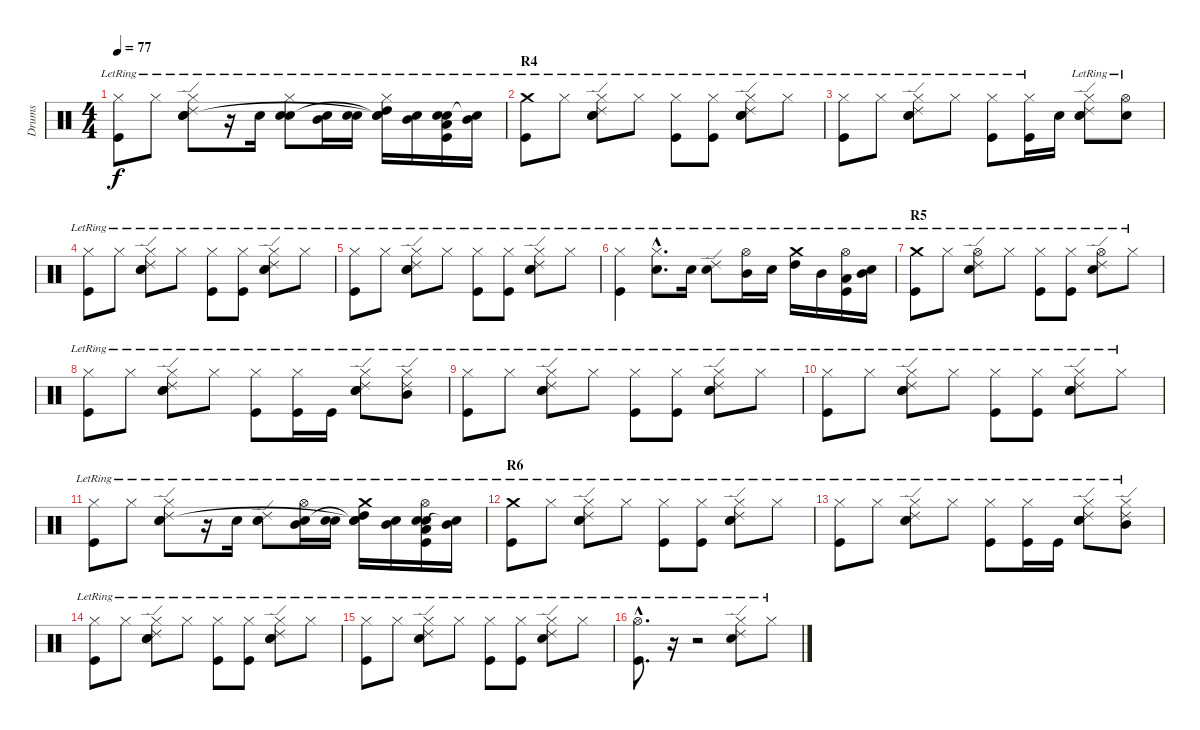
\track ("Drums" "Drums") {instrument percussion}
\staff {score}
\articulation defaults
\ts (4 4)
\tempo 77
\clef neutral
\ks c
("Hi-Hat (closed)"{lr} "Kick (hit)"{lr}).8{dy f} "Hi-Hat (closed)"{lr}.8 ("Hi-Hat (closed)"{lr} "Snare (hit) 2"{lr} "Ride (edge) 2"{lr} "Electric Snare (hit)"{lr}).8 r.16 "Snare (hit) 2"{lr}.16 ("Hi-Hat (closed)"{lr} "Snare (hit) 2"{lr} "Electric Snare (hit)"{lr}).8 ("Mid Tom (hit)"{lr} "Snare (hit) 2"{lr}).16 ("Snare (hit) 2"{lr} "Electric Snare (hit)"{lr}).16 ("Hi-Hat (closed)"{lr} "High Tom (hit)"{lr} "Snare (hit)"{t} "Snare (hit)"{t}).16 ("Mid Tom (hit)"{lr} "Snare (hit) 2"{lr}).16 ("Low Tom (hit)"{lr} "Snare (hit) 2"{lr} "Electric Snare (hit)"{lr} "Kick (hit)"{lr}).16 ("Mid Tom (hit)"{lr} "Snare (hit)"{t}).16 |
\section ("" "R4")
("Crash medium (hit)"{lr} "Kick (hit)"{lr}).8 "Hi-Hat (closed)"{lr}.8 ("Hi-Hat (closed)"{lr} "Snare (hit) 2"{lr} "Ride (edge) 2"{lr} "Electric Snare (hit)"{lr}).8 "Hi-Hat (closed)"{lr}.8 ("Hi-Hat (closed)"{lr} "Kick (hit)"{lr}).8 ("Hi-Hat (closed)"{lr} "Kick (hit)").8 ("Hi-Hat (closed)"{lr} "Snare (hit) 2"{lr} "Ride (edge) 2"{lr} "Electric Snare (hit)"{lr}).8 "Hi-Hat (closed)"{lr}.8 |
("Hi-Hat (closed)"{lr} "Kick (hit)"{lr}).8 "Hi-Hat (closed)"{lr}.8 ("Hi-Hat (closed)"{lr} "Snare (hit) 2"{lr} "Ride (edge) 2"{lr} "Electric Snare (hit)"{lr}).8 "Hi-Hat (closed)"{lr}.8 ("Hi-Hat (closed)"{lr} "Kick (hit)"{lr}).8 ("Hi-Hat (closed)"{lr} "Kick (hit)").16 "Snare (hit) 2".16 ("Hi-Hat (closed)"{lr} "Snare (hit) 2"{lr} "Ride (edge) 2"{lr} "Electric Snare (hit)"{lr}).8 ("Hi-Hat (open)"{lr} "Electric Snare (hit)").8 |
("Hi-Hat (closed)"{lr} "Kick (hit)"{lr}).8 "Hi-Hat (closed)"{lr}.8 ("Hi-Hat (closed)"{lr} "Snare (hit) 2"{lr} "Ride (edge) 2"{lr} "Electric Snare (hit)"{lr}).8 "Hi-Hat (closed)"{lr}.8 ("Hi-Hat (closed)"{lr} "Kick (hit)"{lr}).8 ("Hi-Hat (closed)"{lr} "Kick (hit)").8 ("Hi-Hat (closed)"{lr} "Snare (hit) 2"{lr} "Ride (edge) 2"{lr} "Electric Snare (hit)"{lr}).8 "Hi-Hat (closed)"{lr}.8 |
("Hi-Hat (closed)"{lr} "Kick (hit)"{lr}).8 "Hi-Hat (closed)"{lr}.8 ("Hi-Hat (closed)"{lr} "Snare (hit) 2"{lr} "Ride (edge) 2"{lr} "Electric Snare (hit)"{lr}).8 "Hi-Hat (closed)"{lr}.8 ("Hi-Hat (closed)"{lr} "Kick (hit)"{lr}).8 ("Hi-Hat (closed)"{lr} "Kick (hit)").8 ("Hi-Hat (closed)"{lr} "Snare (hit) 2"{lr} "Ride (edge) 2"{lr} "Electric Snare (hit)"{lr}).8 "Hi-Hat (closed)"{lr}.8 |
("Hi-Hat (closed)"{lr} "Kick (hit)"{lr}).4 ("Hi-Hat (closed)"{hac lr} "Snare (hit) 2"{hac lr}).8{d} "Snare (hit) 2"{lr}.16 ("Ride (edge) 2"{lr} "Snare (hit) 2"{lr}).8 ("Hi-Hat (open)"{lr} "Mid Tom (hit)"{lr}).16 "Snare (hit) 2"{lr}.16 ("Crash medium (hit)"{lr} "High Tom (hit)"{lr}).16 "Mid Tom (hit)"{lr}.16 ("Hi-Hat (open)"{lr} "Low Tom (hit)"{lr} "Kick (hit)"{lr}).16 ("Snare (hit) 2"{lr} "Mid Tom (hit)"{lr}).16 |
\section ("" "R5")
("Crash medium (hit)"{lr} "Kick (hit)"{lr}).8 "Hi-Hat (closed)"{lr}.8 ("Hi-Hat (open)"{lr} "Snare (hit) 2"{lr} "Ride (edge) 2"{lr}).8 "Hi-Hat (closed)"{lr}.8 ("Hi-Hat (closed)"{lr} "Kick (hit)"{lr}).8 ("Hi-Hat (closed)"{lr} "Kick (hit)").8 ("Hi-Hat (open)"{lr} "Snare (hit) 2"{lr} "Ride (edge) 2"{lr}).8 "Hi-Hat (closed)"{lr}.8 |
("Hi-Hat (closed)"{lr} "Kick (hit)"{lr}).8 "Hi-Hat (closed)"{lr}.8 ("Hi-Hat (closed)"{lr} "Snare (hit) 2"{lr} "Ride (edge) 2"{lr} "Electric Snare (hit)"{lr}).8 "Hi-Hat (closed)"{lr}.8 ("Hi-Hat (closed)"{lr} "Kick (hit)").8 ("Hi-Hat (closed)"{lr} "Kick (hit)").16 "Kick (hit)"{lr}.16 ("Hi-Hat (closed)"{lr} "Snare (hit) 2"{lr} "Ride (edge) 2"{lr} "Electric Snare (hit)"{lr}).8 ("Hi-Hat (closed)"{lr} "Mid Tom (hit)"{lr} "Ride (edge) 2"{lr}).8 |
("Hi-Hat (closed)"{lr} "Kick (hit)"{lr}).8 "Hi-Hat (closed)"{lr}.8 ("Hi-Hat (closed)"{lr} "Snare (hit) 2"{lr} "Ride (edge) 2"{lr} "Electric Snare (hit)"{lr}).8 "Hi-Hat (closed)"{lr}.8 ("Hi-Hat (closed)"{lr} "Kick (hit)").8 ("Hi-Hat (closed)"{lr} "Kick (hit)").8 ("Hi-Hat (closed)"{lr} "Snare (hit) 2"{lr} "Ride (edge) 2"{lr} "Electric Snare (hit)"{lr}).8 "Hi-Hat (closed)"{lr}.8 |
("Hi-Hat (closed)"{lr} "Kick (hit)"{lr}).8 "Hi-Hat (closed)"{lr}.8 ("Hi-Hat (closed)"{lr} "Snare (hit) 2"{lr} "Ride (edge) 2"{lr} "Electric Snare (hit)"{lr}).8 "Hi-Hat (closed)"{lr}.8 ("Hi-Hat (closed)"{lr} "Kick (hit)").8 ("Hi-Hat (closed)"{lr} "Kick (hit)").8 ("Hi-Hat (closed)"{lr} "Snare (hit) 2"{lr} "Ride (edge) 2"{lr} "Electric Snare (hit)"{lr}).8 "Hi-Hat (closed)"{lr}.8 |
("Hi-Hat (closed)"{lr} "Kick (hit)"{lr}).8 "Hi-Hat (closed)"{lr}.8 ("Hi-Hat (closed)"{lr} "Snare (hit) 2"{lr} "Ride (edge) 2"{lr} "Electric Snare (hit)"{lr}).8 r.16 "Snare (hit) 2"{lr}.16 ("Ride (edge) 2"{lr} "Snare (hit) 2"{lr} "Electric Snare (hit)"{lr}).8 ("Hi-Hat (open)" "Mid Tom (hit)"{lr} "Snare (hit) 2"{lr}).16 ("Snare (hit) 2"{lr} "Electric Snare (hit)"{lr}).16 ("Crash medium (hit)"{lr} "High Tom (hit)"{lr} "Snare (hit)"{t} "Snare (hit)"{t}).16 ("Mid Tom (hit)"{lr} "Snare (hit) 2"{lr}).16 ("Hi-Hat (open)" "Low Tom (hit)"{lr} "Snare (hit) 2"{lr} "Electric Snare (hit)"{lr} "Kick (hit)"{lr}).16 ("Mid Tom (hit)"{lr} "Snare (hit)"{t}).16 |
\section ("" "R6")
("Crash medium (hit)"{lr} "Kick (hit)"{lr}).8 "Hi-Hat (closed)"{lr}.8 ("Hi-Hat (closed)"{lr} "Snare (hit) 2"{lr} "Ride (edge) 2"{lr} "Electric Snare (hit)"{lr}).8 "Hi-Hat (closed)"{lr}.8 ("Hi-Hat (closed)"{lr} "Kick (hit)").8 ("Hi-Hat (closed)"{lr} "Kick (hit)").8 ("Hi-Hat (closed)"{lr} "Snare (hit) 2"{lr} "Ride (edge) 2"{lr} "Electric Snare (hit)"{lr}).8 "Hi-Hat (closed)"{lr}.8 |
("Hi-Hat (closed)"{lr} "Kick (hit)"{lr}).8 "Hi-Hat (closed)"{lr}.8 ("Hi-Hat (closed)"{lr} "Snare (hit) 2"{lr} "Ride (edge) 2"{lr} "Electric Snare (hit)"{lr}).8 "Hi-Hat (closed)"{lr}.8 ("Hi-Hat (closed)"{lr} "Kick (hit)").8 ("Hi-Hat (closed)"{lr} "Kick (hit)").16 "Kick (hit)"{lr}.16 ("Hi-Hat (closed)"{lr} "Snare (hit) 2"{lr} "Ride (edge) 2"{lr} "Electric Snare (hit)"{lr}).8 ("Hi-Hat (closed)"{lr} "Mid Tom (hit)"{lr} "Ride (edge) 2"{lr}).8 |
("Hi-Hat (closed)"{lr} "Kick (hit)"{lr}).8 "Hi-Hat (closed)"{lr}.8 ("Hi-Hat (closed)"{lr} "Snare (hit) 2"{lr} "Ride (edge) 2"{lr} "Electric Snare (hit)"{lr}).8 "Hi-Hat (closed)"{lr}.8 ("Hi-Hat (closed)"{lr} "Kick (hit)").8 ("Hi-Hat (closed)"{lr} "Kick (hit)").8 ("Hi-Hat (closed)"{lr} "Snare (hit) 2"{lr} "Ride (edge) 2"{lr} "Electric Snare (hit)"{lr}).8 "Hi-Hat (closed)"{lr}.8 |
("Hi-Hat (closed)"{lr} "Kick (hit)"{lr}).8 "Hi-Hat (closed)"{lr}.8 ("Hi-Hat (closed)"{lr} "Snare (hit) 2"{lr} "Ride (edge) 2"{lr}).8 "Hi-Hat (closed)"{lr}.8 ("Hi-Hat (closed)"{lr} "Kick (hit)").8 ("Hi-Hat (closed)"{lr} "Kick (hit)").8 ("Hi-Hat (closed)"{lr} "Snare (hit) 2"{lr} "Ride (edge) 2"{lr}).8 "Hi-Hat (closed)"{lr}.8 |
("Hi-Hat (open)"{hac} "Kick (hit)"{hac lr}).8{d} r.16 r.2 ("Hi-Hat (closed)"{lr} "Snare (hit) 2"{lr} "Ride (edge) 2"{lr}).8 "Hi-Hat (closed)"{lr}.8
